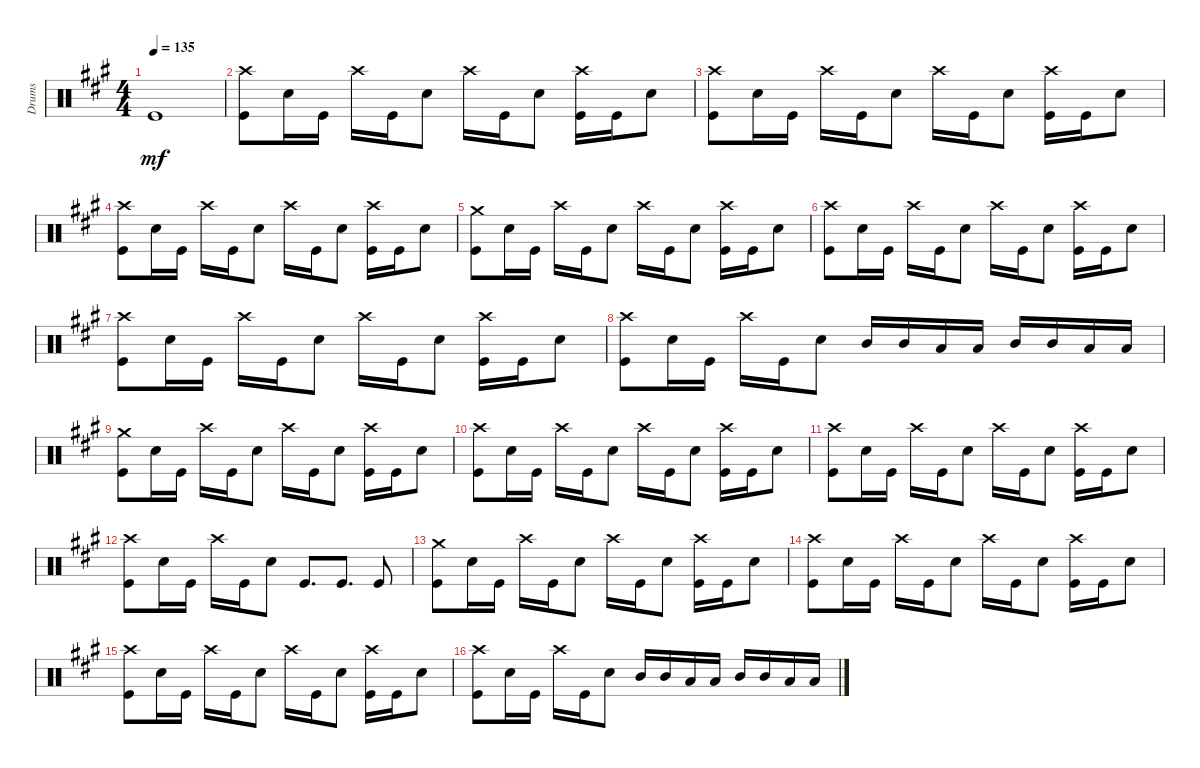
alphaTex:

\track ("Drums" "Drums") {instrument percussion}
\staff {score}
\articulation defaults
\ts (4 4)
\tempo 135
\clef neutral
\ks a "Kick (hit)".1{dy mf}
|
("Kick (hit)" "Crash high (hit)").8 "Snare (hit) 2".16 "Kick (hit)".16 "Crash high (hit)".16 "Kick (hit)".16 "Snare (hit) 2".8 "Crash high (hit)".16 "Kick (hit)".16 "Snare (hit) 2".8 ("Kick (hit)" "Crash high (hit)").16 "Kick (hit)".16 "Snare (hit) 2".8 |
("Kick (hit)" "Crash high (hit)").8 "Snare (hit) 2".16 "Kick (hit)".16 "Crash high (hit)".16 "Kick (hit)".16 "Snare (hit) 2".8 "Crash high (hit)".16 "Kick (hit)".16 "Snare (hit) 2".8 ("Kick (hit)" "Crash high (hit)").16 "Kick (hit)".16 "Snare (hit) 2".8 |
("Kick (hit)" "Crash high (hit)").8 "Snare (hit) 2".16 "Kick (hit)".16 "Crash high (hit)".16 "Kick (hit)".16 "Snare (hit) 2".8 "Crash high (hit)".16 "Kick (hit)".16 "Snare (hit) 2".8 ("Kick (hit)" "Crash high (hit)").16 "Kick (hit)".16 "Snare (hit) 2".8 |
("Kick (hit)" "Crash medium (hit)").8 "Snare (hit) 2".16 "Kick (hit)".16 "Crash high (hit)".16 "Kick (hit)".16 "Snare (hit) 2".8 "Crash high (hit)".16 "Kick (hit)".16 "Snare (hit) 2".8 ("Kick (hit)" "Crash high (hit)").16 "Kick (hit)".16 "Snare (hit) 2".8 |
("Kick (hit)" "Crash high (hit)").8 "Snare (hit) 2".16 "Kick (hit)".16 "Crash high (hit)".16 "Kick (hit)".16 "Snare (hit) 2".8 "Crash high (hit)".16 "Kick (hit)".16 "Snare (hit) 2".8 ("Kick (hit)" "Crash high (hit)").16 "Kick (hit)".16 "Snare (hit) 2".8 |
("Kick (hit)" "Crash high (hit)").8 "Snare (hit) 2".16 "Kick (hit)".16 "Crash high (hit)".16 "Kick (hit)".16 "Snare (hit) 2".8 "Crash high (hit)".16 "Kick (hit)".16 "Snare (hit) 2".8 ("Kick (hit)" "Crash high (hit)").16 "Kick (hit)".16 "Snare (hit) 2".8 |
("Kick (hit)" "Crash high (hit)").8 "Snare (hit) 2".16 "Kick (hit)".16 "Crash high (hit)".16 "Kick (hit)".16 "Snare (hit) 2".8 "Mid Tom (hit)".16 "Mid Tom (hit)".16 "Low Tom (hit)".16 "Low Tom (hit)".16 "Mid Tom (hit)".16 "Mid Tom (hit)".16 "Low Tom (hit)".16 "Low Tom (hit)".16 |
("Kick (hit)" "Crash medium (hit)").8 "Snare (hit) 2".16 "Kick (hit)".16 "Crash high (hit)".16 "Kick (hit)".16 "Snare (hit) 2".8 "Crash high (hit)".16 "Kick (hit)".16 "Snare (hit) 2".8 ("Kick (hit)" "Crash high (hit)").16 "Kick (hit)".16 "Snare (hit) 2".8 |
("Kick (hit)" "Crash high (hit)").8 "Snare (hit) 2".16 "Kick (hit)".16 "Crash high (hit)".16 "Kick (hit)".16 "Snare (hit) 2".8 "Crash high (hit)".16 "Kick (hit)".16 "Snare (hit) 2".8 ("Kick (hit)" "Crash high (hit)").16 "Kick (hit)".16 "Snare (hit) 2".8 |
("Kick (hit)" "Crash high (hit)").8 "Snare (hit) 2".16 "Kick (hit)".16 "Crash high (hit)".16 "Kick (hit)".16 "Snare (hit) 2".8 "Crash high (hit)".16 "Kick (hit)".16 "Snare (hit) 2".8 ("Kick (hit)" "Crash high (hit)").16 "Kick (hit)".16 "Snare (hit) 2".8 |
("Kick (hit)" "Crash high (hit)").8 "Snare (hit) 2".16 "Kick (hit)".16 "Crash high (hit)".16 "Kick (hit)".16 "Snare (hit) 2".8 "Kick (hit)".8{d} "Kick (hit)".8{d} "Kick (hit)".8 |
("Kick (hit)" "Crash medium (hit)").8 "Snare (hit) 2".16 "Kick (hit)".16 "Crash high (hit)".16 "Kick (hit)".16 "Snare (hit) 2".8 "Crash high (hit)".16 "Kick (hit)".16 "Snare (hit) 2".8 ("Kick (hit)" "Crash high (hit)").16 "Kick (hit)".16 "Snare (hit) 2".8 |
("Kick (hit)" "Crash high (hit)").8 "Snare (hit) 2".16 "Kick (hit)".16 "Crash high (hit)".16 "Kick (hit)".16 "Snare (hit) 2".8 "Crash high (hit)".16 "Kick (hit)".16 "Snare (hit) 2".8 ("Kick (hit)" "Crash high (hit)").16 "Kick (hit)".16 "Snare (hit) 2".8 |
("Kick (hit)" "Crash high (hit)").8 "Snare (hit) 2".16 "Kick (hit)".16 "Crash high (hit)".16 "Kick (hit)".16 "Snare (hit) 2".8 "Crash high (hit)".16 "Kick (hit)".16 "Snare (hit) 2".8 ("Kick (hit)" "Crash high (hit)").16 "Kick (hit)".16 "Snare (hit) 2".8 |
("Kick (hit)" "Crash high (hit)").8 "Snare (hit) 2".16 "Kick (hit)".16 "Crash high (hit)".16 "Kick (hit)".16 "Snare (hit) 2".8 "Mid Tom (hit)".16 "Mid Tom (hit)".16 "Low Tom (hit)".16 "Low Tom (hit)".16 "Mid Tom (hit)".16 "Mid Tom (hit)".16 "Low Tom (hit)".16 "Low Tom (hit)".16
